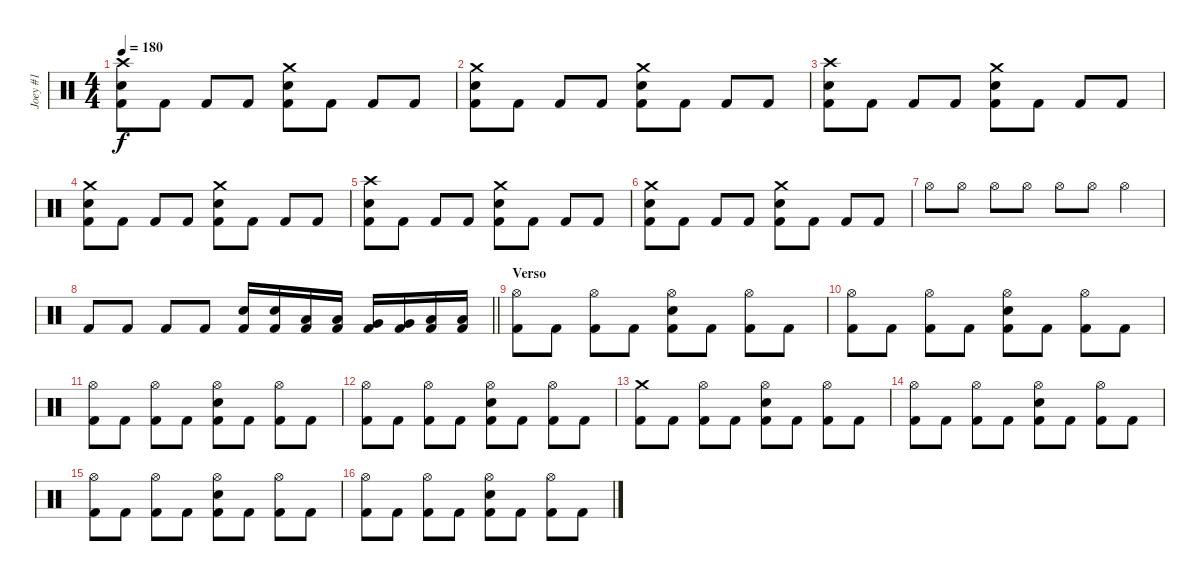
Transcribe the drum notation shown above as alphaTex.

\track ("Joey #1" "Joey #1") {instrument percussion}
\staff {score}
\articulation defaults
\ts (4 4)
\tempo 180
\clef neutral
\ks c
("Crash high (hit)" "Electric Snare (hit)" "Kick (hit) 2").8{dy f} "Kick (hit) 2".8 "Kick (hit) 2".8 "Kick (hit) 2".8 ("Crash medium (hit)" "Electric Snare (hit)" "Kick (hit) 2").8 "Kick (hit) 2".8 "Kick (hit) 2".8 "Kick (hit) 2".8 |
("Crash medium (hit)" "Electric Snare (hit)" "Kick (hit) 2").8 "Kick (hit) 2".8 "Kick (hit) 2".8 "Kick (hit) 2".8 ("Crash medium (hit)" "Electric Snare (hit)" "Kick (hit) 2").8 "Kick (hit) 2".8 "Kick (hit) 2".8 "Kick (hit) 2".8 |
("Crash high (hit)" "Electric Snare (hit)" "Kick (hit) 2").8 "Kick (hit) 2".8 "Kick (hit) 2".8 "Kick (hit) 2".8 ("Crash medium (hit)" "Electric Snare (hit)" "Kick (hit) 2").8 "Kick (hit) 2".8 "Kick (hit) 2".8 "Kick (hit) 2".8 |
("Crash medium (hit)" "Electric Snare (hit)" "Kick (hit) 2").8 "Kick (hit) 2".8 "Kick (hit) 2".8 "Kick (hit) 2".8 ("Crash medium (hit)" "Electric Snare (hit)" "Kick (hit) 2").8 "Kick (hit) 2".8 "Kick (hit) 2".8 "Kick (hit) 2".8 |
("Crash high (hit)" "Electric Snare (hit)" "Kick (hit) 2").8 "Kick (hit) 2".8 "Kick (hit) 2".8 "Kick (hit) 2".8 ("Crash medium (hit)" "Electric Snare (hit)" "Kick (hit) 2").8 "Kick (hit) 2".8 "Kick (hit) 2".8 "Kick (hit) 2".8 |
("Crash medium (hit)" "Electric Snare (hit)" "Kick (hit) 2").8 "Kick (hit) 2".8 "Kick (hit) 2".8 "Kick (hit) 2".8 ("Crash medium (hit)" "Electric Snare (hit)" "Kick (hit) 2").8 "Kick (hit) 2".8 "Kick (hit) 2".8 "Kick (hit) 2".8 |
"Hi-Hat (open)".8 "Hi-Hat (open)".8 "Hi-Hat (open)".8 "Hi-Hat (open)".8 "Hi-Hat (open)".8 "Hi-Hat (open)".8 "Hi-Hat (open)".4 |
\barLineRight lightlight "Kick (hit) 2".8 "Kick (hit) 2".8 "Kick (hit) 2".8 "Kick (hit) 2".8
("Electric Snare (hit)" "Kick (hit) 2").16 ("Electric Snare (hit)" "Kick (hit) 2").16 ("Low Tom (hit)" "Kick (hit) 2").16 ("Low Tom (hit)" "Kick (hit) 2").16 ("Very Low Tom (hit)" "Kick (hit) 2").16 ("Very Low Tom (hit)" "Kick (hit) 2").16 ("Low Floor Tom (hit)" "Kick (hit) 2").16 ("Low Floor Tom (hit)" "Kick (hit) 2").16 |
\section ("" "Verso")
("Hi-Hat (open)" "Kick (hit) 2").8 "Kick (hit) 2".8 ("Hi-Hat (open)" "Kick (hit) 2").8 "Kick (hit) 2".8 ("Hi-Hat (open)" "Electric Snare (hit)" "Kick (hit) 2").8 "Kick (hit) 2".8 ("Hi-Hat (open)" "Kick (hit) 2").8 "Kick (hit) 2".8 |
("Hi-Hat (open)" "Kick (hit) 2").8 "Kick (hit) 2".8 ("Hi-Hat (open)" "Kick (hit) 2").8 "Kick (hit) 2".8 ("Hi-Hat (open)" "Electric Snare (hit)" "Kick (hit) 2").8 "Kick (hit) 2".8 ("Hi-Hat (open)" "Kick (hit) 2").8 "Kick (hit) 2".8 |
("Hi-Hat (open)" "Kick (hit) 2").8 "Kick (hit) 2".8 ("Hi-Hat (open)" "Kick (hit) 2").8 "Kick (hit) 2".8 ("Hi-Hat (open)" "Electric Snare (hit)" "Kick (hit) 2").8 "Kick (hit) 2".8 ("Hi-Hat (open)" "Kick (hit) 2").8 "Kick (hit) 2".8 |
("Hi-Hat (open)" "Kick (hit) 2").8 "Kick (hit) 2".8 ("Hi-Hat (open)" "Kick (hit) 2").8 "Kick (hit) 2".8 ("Hi-Hat (open)" "Electric Snare (hit)" "Kick (hit) 2").8 "Kick (hit) 2".8 ("Hi-Hat (open)" "Kick (hit) 2").8 "Kick (hit) 2".8 |
("Crash medium (hit)" "Kick (hit) 2").8 "Kick (hit) 2".8 ("Hi-Hat (open)" "Kick (hit) 2").8 "Kick (hit) 2".8 ("Hi-Hat (open)" "Electric Snare (hit)" "Kick (hit) 2").8 "Kick (hit) 2".8 ("Hi-Hat (open)" "Kick (hit) 2").8 "Kick (hit) 2".8 |
("Hi-Hat (open)" "Kick (hit) 2").8 "Kick (hit) 2".8 ("Hi-Hat (open)" "Kick (hit) 2").8 "Kick (hit) 2".8 ("Hi-Hat (open)" "Electric Snare (hit)" "Kick (hit) 2").8 "Kick (hit) 2".8 ("Hi-Hat (open)" "Kick (hit) 2").8 "Kick (hit) 2".8 |
("Hi-Hat (open)" "Kick (hit) 2").8 "Kick (hit) 2".8 ("Hi-Hat (open)" "Kick (hit) 2").8 "Kick (hit) 2".8 ("Hi-Hat (open)" "Electric Snare (hit)" "Kick (hit) 2").8 "Kick (hit) 2".8 ("Hi-Hat (open)" "Kick (hit) 2").8 "Kick (hit) 2".8 |
("Hi-Hat (open)" "Kick (hit) 2").8 "Kick (hit) 2".8 ("Hi-Hat (open)" "Kick (hit) 2").8 "Kick (hit) 2".8 ("Hi-Hat (open)" "Electric Snare (hit)" "Kick (hit) 2").8 "Kick (hit) 2".8 ("Hi-Hat (open)" "Kick (hit) 2").8 "Kick (hit) 2".8
